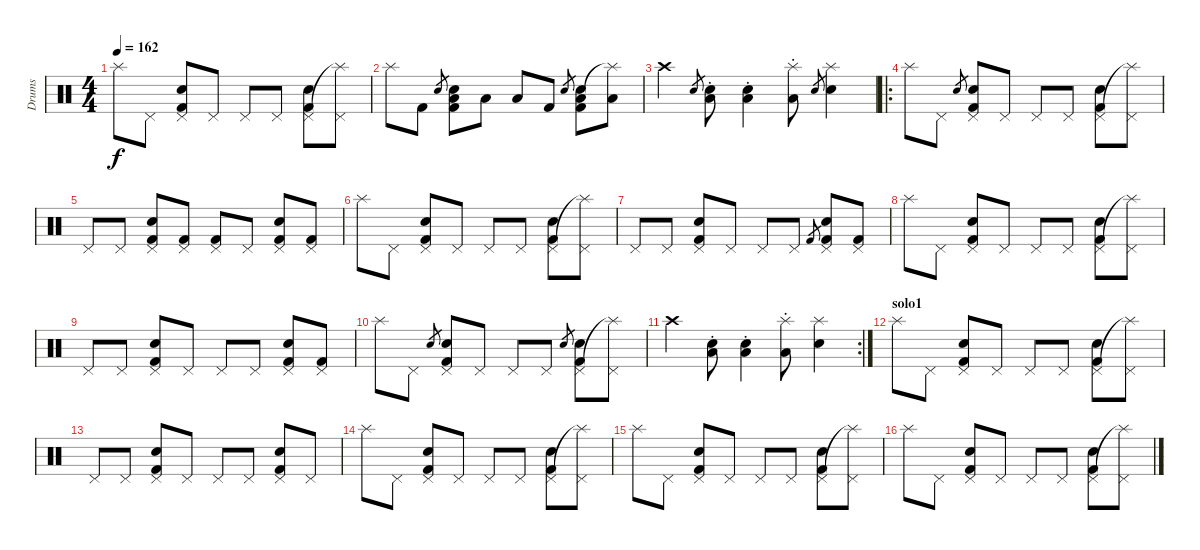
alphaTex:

\track ("Drums" "Drums") {instrument percussion}
\staff {score}
\articulation defaults
\ts (4 4)
\tempo 162
\clef neutral
\ks c "Splash (hit)".8{dy f} "Pedal Hi-Hat (hit)".8
("Pedal Hi-Hat (hit)" "Snare (hit) 2" "Kick (hit) 2").8 "Pedal Hi-Hat (hit)".8 "Pedal Hi-Hat (hit)".8 "Pedal Hi-Hat (hit)".8 ("Pedal Hi-Hat (hit)" "Snare (hit) 2" "Kick (hit) 2").8 ("Splash (hit)"{t} "Pedal Hi-Hat (hit)").8 |
"Splash (hit)".8 "Kick (hit) 2".8 "Snare (hit) 2".8{gr} ("Low Tom (hit)" "Snare (hit) 2" "Kick (hit) 2").8 "Low Tom (hit)".8 "Low Tom (hit)".8 "Kick (hit) 2".8 "Snare (hit) 2".8{gr} ("Low Tom (hit)" "Snare (hit) 2" "Kick (hit) 2").8 ("Splash (hit)"{t} "Low Tom (hit)").8 |
"Crash high (hit)".4 "Snare (hit) 2".8{gr} ("Low Floor Tom (hit)"{st} "Snare (hit) 2").8 ("Low Tom (hit)"{st} "Snare (hit) 2").4 ("Splash (hit)" "Low Floor Tom (hit)"{st}).8 "Snare (hit) 2".8{gr} ("Splash (hit)" "Snare (hit) 2").4 |
\ro "Splash (hit)".8 "Pedal Hi-Hat (hit)".8 "Snare (hit) 2".8{gr}
("Pedal Hi-Hat (hit)" "Snare (hit) 2" "Kick (hit) 2").8 "Pedal Hi-Hat (hit)".8 "Pedal Hi-Hat (hit)".8 "Pedal Hi-Hat (hit)".8 ("Pedal Hi-Hat (hit)" "Snare (hit) 2" "Kick (hit) 2").8 ("Splash (hit)"{t} "Pedal Hi-Hat (hit)").8 |
"Pedal Hi-Hat (hit)".8 "Pedal Hi-Hat (hit)".8 ("Pedal Hi-Hat (hit)" "Snare (hit) 2" "Kick (hit) 2").8 ("Pedal Hi-Hat (hit)" "Kick (hit) 2").8 ("Pedal Hi-Hat (hit)" "Kick (hit) 2").8 "Pedal Hi-Hat (hit)".8 ("Pedal Hi-Hat (hit)" "Snare (hit) 2" "Kick (hit) 2").8 ("Pedal Hi-Hat (hit)" "Kick (hit) 2").8 |
"Splash (hit)".8 "Pedal Hi-Hat (hit)".8 ("Pedal Hi-Hat (hit)" "Snare (hit) 2" "Kick (hit) 2").8 "Pedal Hi-Hat (hit)".8 "Pedal Hi-Hat (hit)".8 "Pedal Hi-Hat (hit)".8 ("Pedal Hi-Hat (hit)" "Snare (hit) 2" "Kick (hit) 2").8 ("Splash (hit)"{t} "Pedal Hi-Hat (hit)").8 |
"Pedal Hi-Hat (hit)".8 "Pedal Hi-Hat (hit)".8 ("Pedal Hi-Hat (hit)" "Snare (hit) 2" "Kick (hit) 2").8 "Pedal Hi-Hat (hit)".8 "Pedal Hi-Hat (hit)".8 "Pedal Hi-Hat (hit)".8 "Kick (hit) 2".8{gr} ("Pedal Hi-Hat (hit)" "Snare (hit) 2" "Kick (hit) 2").8 ("Pedal Hi-Hat (hit)" "Kick (hit) 2").8 |
"Splash (hit)".8 "Pedal Hi-Hat (hit)".8 ("Pedal Hi-Hat (hit)" "Snare (hit) 2" "Kick (hit) 2").8 "Pedal Hi-Hat (hit)".8 "Pedal Hi-Hat (hit)".8 "Pedal Hi-Hat (hit)".8 ("Pedal Hi-Hat (hit)" "Snare (hit) 2" "Kick (hit) 2").8 ("Splash (hit)"{t} "Pedal Hi-Hat (hit)").8 |
"Pedal Hi-Hat (hit)".8 "Pedal Hi-Hat (hit)".8 ("Pedal Hi-Hat (hit)" "Snare (hit) 2" "Kick (hit) 2").8 "Pedal Hi-Hat (hit)".8 "Pedal Hi-Hat (hit)".8 "Pedal Hi-Hat (hit)".8 ("Pedal Hi-Hat (hit)" "Snare (hit) 2" "Kick (hit) 2").8 ("Pedal Hi-Hat (hit)" "Kick (hit) 2").8 |
"Splash (hit)".8 "Pedal Hi-Hat (hit)".8 "Snare (hit) 2".8{gr} ("Pedal Hi-Hat (hit)" "Snare (hit) 2" "Kick (hit) 2").8 "Pedal Hi-Hat (hit)".8 "Pedal Hi-Hat (hit)".8 "Pedal Hi-Hat (hit)".8 "Snare (hit) 2".8{gr} ("Pedal Hi-Hat (hit)" "Snare (hit) 2" "Kick (hit) 2").8 ("Splash (hit)"{t} "Pedal Hi-Hat (hit)").8 |
\rc 2 "Crash high (hit)".4
("Low Floor Tom (hit)"{st} "Snare (hit) 2").8 ("Low Tom (hit)"{st} "Snare (hit) 2").4 ("Splash (hit)" "Low Floor Tom (hit)"{st}).8 ("Splash (hit)" "Snare (hit) 2").4 |
\section ("" "solo1")
"Splash (hit)".8 "Pedal Hi-Hat (hit)".8 ("Pedal Hi-Hat (hit)" "Snare (hit) 2" "Kick (hit) 2").8 "Pedal Hi-Hat (hit)".8 "Pedal Hi-Hat (hit)".8 "Pedal Hi-Hat (hit)".8 ("Pedal Hi-Hat (hit)" "Snare (hit) 2" "Kick (hit) 2").8 ("Splash (hit)"{t} "Pedal Hi-Hat (hit)").8 |
"Pedal Hi-Hat (hit)".8 "Pedal Hi-Hat (hit)".8 ("Pedal Hi-Hat (hit)" "Snare (hit) 2" "Kick (hit) 2").8 "Pedal Hi-Hat (hit)".8 "Pedal Hi-Hat (hit)".8 "Pedal Hi-Hat (hit)".8 ("Pedal Hi-Hat (hit)" "Snare (hit) 2" "Kick (hit) 2").8 "Pedal Hi-Hat (hit)".8 |
"Splash (hit)".8 "Pedal Hi-Hat (hit)".8 ("Pedal Hi-Hat (hit)" "Snare (hit) 2" "Kick (hit) 2").8 "Pedal Hi-Hat (hit)".8 "Pedal Hi-Hat (hit)".8 "Pedal Hi-Hat (hit)".8 ("Pedal Hi-Hat (hit)" "Snare (hit) 2" "Kick (hit) 2").8 ("Splash (hit)"{t} "Pedal Hi-Hat (hit)").8 |
"Splash (hit)".8 "Pedal Hi-Hat (hit)".8 ("Pedal Hi-Hat (hit)" "Snare (hit) 2" "Kick (hit) 2").8 "Pedal Hi-Hat (hit)".8 "Pedal Hi-Hat (hit)".8 "Pedal Hi-Hat (hit)".8 ("Pedal Hi-Hat (hit)" "Snare (hit) 2" "Kick (hit) 2").8 ("Splash (hit)"{t} "Pedal Hi-Hat (hit)").8 |
"Splash (hit)".8 "Pedal Hi-Hat (hit)".8 ("Pedal Hi-Hat (hit)" "Snare (hit) 2" "Kick (hit) 2").8 "Pedal Hi-Hat (hit)".8 "Pedal Hi-Hat (hit)".8 "Pedal Hi-Hat (hit)".8 ("Pedal Hi-Hat (hit)" "Snare (hit) 2" "Kick (hit) 2").8 ("Splash (hit)"{t} "Pedal Hi-Hat (hit)").8
